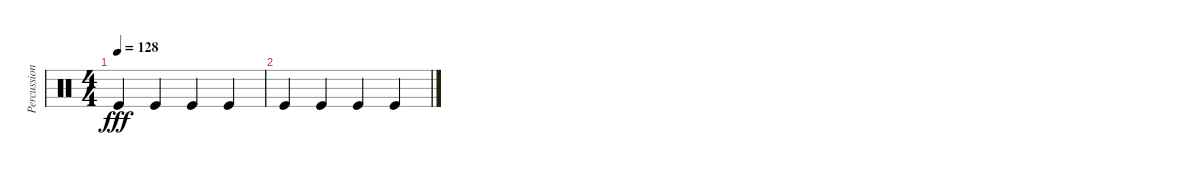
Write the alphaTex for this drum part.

\track ("Percussion" "Percussion") {instrument percussion}
\staff {score}
\articulation defaults
\ts (4 4)
\tempo 128
\clef neutral
\ks c "Kick (hit)".4{dy fff} "Kick (hit)".4 "Kick (hit)".4 "Kick (hit)".4
|
"Kick (hit)".4 "Kick (hit)".4 "Kick (hit)".4 "Kick (hit)".4
